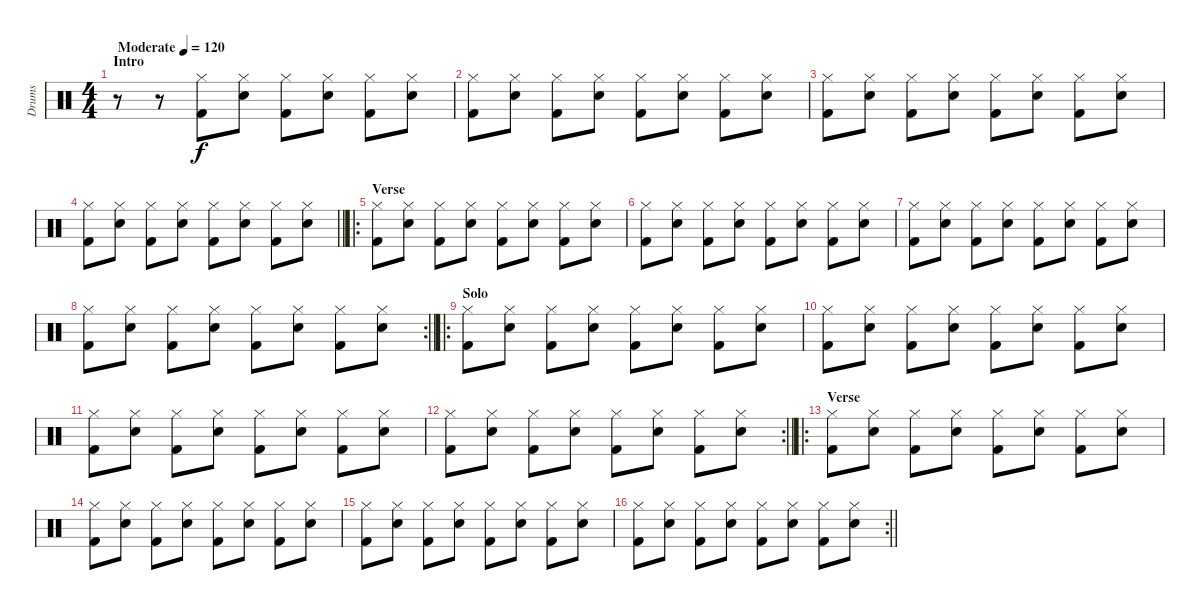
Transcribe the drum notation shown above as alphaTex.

\track ("Drums" "Drums") {instrument percussion}
\staff {score}
\articulation defaults
\ts (4 4)
\section ("" "Intro")
\tempo (120 "Moderate")
\clef neutral
\ks c
r.8{dy f} r.8 ("Hi-Hat (closed)" "Kick (hit) 2").8 ("Hi-Hat (closed)" "Snare (hit) 2").8 ("Hi-Hat (closed)" "Kick (hit) 2").8 ("Hi-Hat (closed)" "Snare (hit) 2").8 ("Hi-Hat (closed)" "Kick (hit) 2").8 ("Hi-Hat (closed)" "Snare (hit) 2").8 |
("Hi-Hat (closed)" "Kick (hit) 2").8 ("Hi-Hat (closed)" "Snare (hit) 2").8 ("Hi-Hat (closed)" "Kick (hit) 2").8 ("Hi-Hat (closed)" "Snare (hit) 2").8 ("Hi-Hat (closed)" "Kick (hit) 2").8 ("Hi-Hat (closed)" "Snare (hit) 2").8 ("Hi-Hat (closed)" "Kick (hit) 2").8 ("Hi-Hat (closed)" "Snare (hit) 2").8 |
("Hi-Hat (closed)" "Kick (hit) 2").8 ("Hi-Hat (closed)" "Snare (hit) 2").8 ("Hi-Hat (closed)" "Kick (hit) 2").8 ("Hi-Hat (closed)" "Snare (hit) 2").8 ("Hi-Hat (closed)" "Kick (hit) 2").8 ("Hi-Hat (closed)" "Snare (hit) 2").8 ("Hi-Hat (closed)" "Kick (hit) 2").8 ("Hi-Hat (closed)" "Snare (hit) 2").8 |
\barLineRight lightlight
("Hi-Hat (closed)" "Kick (hit) 2").8 ("Hi-Hat (closed)" "Snare (hit) 2").8 ("Hi-Hat (closed)" "Kick (hit) 2").8 ("Hi-Hat (closed)" "Snare (hit) 2").8 ("Hi-Hat (closed)" "Kick (hit) 2").8 ("Hi-Hat (closed)" "Snare (hit) 2").8 ("Hi-Hat (closed)" "Kick (hit) 2").8 ("Hi-Hat (closed)" "Snare (hit) 2").8 |
\ro
\section ("" "Verse")
("Hi-Hat (closed)" "Kick (hit) 2").8 ("Hi-Hat (closed)" "Snare (hit) 2").8 ("Hi-Hat (closed)" "Kick (hit) 2").8 ("Hi-Hat (closed)" "Snare (hit) 2").8 ("Hi-Hat (closed)" "Kick (hit) 2").8 ("Hi-Hat (closed)" "Snare (hit) 2").8 ("Hi-Hat (closed)" "Kick (hit) 2").8 ("Hi-Hat (closed)" "Snare (hit) 2").8 |
("Hi-Hat (closed)" "Kick (hit) 2").8 ("Hi-Hat (closed)" "Snare (hit) 2").8 ("Hi-Hat (closed)" "Kick (hit) 2").8 ("Hi-Hat (closed)" "Snare (hit) 2").8 ("Hi-Hat (closed)" "Kick (hit) 2").8 ("Hi-Hat (closed)" "Snare (hit) 2").8 ("Hi-Hat (closed)" "Kick (hit) 2").8 ("Hi-Hat (closed)" "Snare (hit) 2").8 |
("Hi-Hat (closed)" "Kick (hit) 2").8 ("Hi-Hat (closed)" "Snare (hit) 2").8 ("Hi-Hat (closed)" "Kick (hit) 2").8 ("Hi-Hat (closed)" "Snare (hit) 2").8 ("Hi-Hat (closed)" "Kick (hit) 2").8 ("Hi-Hat (closed)" "Snare (hit) 2").8 ("Hi-Hat (closed)" "Kick (hit) 2").8 ("Hi-Hat (closed)" "Snare (hit) 2").8 |
\rc 2
\barLineRight lightlight
("Hi-Hat (closed)" "Kick (hit) 2").8 ("Hi-Hat (closed)" "Snare (hit) 2").8 ("Hi-Hat (closed)" "Kick (hit) 2").8 ("Hi-Hat (closed)" "Snare (hit) 2").8 ("Hi-Hat (closed)" "Kick (hit) 2").8 ("Hi-Hat (closed)" "Snare (hit) 2").8 ("Hi-Hat (closed)" "Kick (hit) 2").8 ("Hi-Hat (closed)" "Snare (hit) 2").8 |
\ro
\section ("" "Solo")
("Hi-Hat (closed)" "Kick (hit) 2").8 ("Hi-Hat (closed)" "Snare (hit) 2").8 ("Hi-Hat (closed)" "Kick (hit) 2").8 ("Hi-Hat (closed)" "Snare (hit) 2").8 ("Hi-Hat (closed)" "Kick (hit) 2").8 ("Hi-Hat (closed)" "Snare (hit) 2").8 ("Hi-Hat (closed)" "Kick (hit) 2").8 ("Hi-Hat (closed)" "Snare (hit) 2").8 |
("Hi-Hat (closed)" "Kick (hit) 2").8 ("Hi-Hat (closed)" "Snare (hit) 2").8 ("Hi-Hat (closed)" "Kick (hit) 2").8 ("Hi-Hat (closed)" "Snare (hit) 2").8 ("Hi-Hat (closed)" "Kick (hit) 2").8 ("Hi-Hat (closed)" "Snare (hit) 2").8 ("Hi-Hat (closed)" "Kick (hit) 2").8 ("Hi-Hat (closed)" "Snare (hit) 2").8 |
("Hi-Hat (closed)" "Kick (hit) 2").8 ("Hi-Hat (closed)" "Snare (hit) 2").8 ("Hi-Hat (closed)" "Kick (hit) 2").8 ("Hi-Hat (closed)" "Snare (hit) 2").8 ("Hi-Hat (closed)" "Kick (hit) 2").8 ("Hi-Hat (closed)" "Snare (hit) 2").8 ("Hi-Hat (closed)" "Kick (hit) 2").8 ("Hi-Hat (closed)" "Snare (hit) 2").8 |
\rc 2
\barLineRight lightlight
("Hi-Hat (closed)" "Kick (hit) 2").8 ("Hi-Hat (closed)" "Snare (hit) 2").8 ("Hi-Hat (closed)" "Kick (hit) 2").8 ("Hi-Hat (closed)" "Snare (hit) 2").8 ("Hi-Hat (closed)" "Kick (hit) 2").8 ("Hi-Hat (closed)" "Snare (hit) 2").8 ("Hi-Hat (closed)" "Kick (hit) 2").8 ("Hi-Hat (closed)" "Snare (hit) 2").8 |
\ro
\section ("" "Verse")
("Hi-Hat (closed)" "Kick (hit) 2").8 ("Hi-Hat (closed)" "Snare (hit) 2").8 ("Hi-Hat (closed)" "Kick (hit) 2").8 ("Hi-Hat (closed)" "Snare (hit) 2").8 ("Hi-Hat (closed)" "Kick (hit) 2").8 ("Hi-Hat (closed)" "Snare (hit) 2").8 ("Hi-Hat (closed)" "Kick (hit) 2").8 ("Hi-Hat (closed)" "Snare (hit) 2").8 |
("Hi-Hat (closed)" "Kick (hit) 2").8 ("Hi-Hat (closed)" "Snare (hit) 2").8 ("Hi-Hat (closed)" "Kick (hit) 2").8 ("Hi-Hat (closed)" "Snare (hit) 2").8 ("Hi-Hat (closed)" "Kick (hit) 2").8 ("Hi-Hat (closed)" "Snare (hit) 2").8 ("Hi-Hat (closed)" "Kick (hit) 2").8 ("Hi-Hat (closed)" "Snare (hit) 2").8 |
("Hi-Hat (closed)" "Kick (hit) 2").8 ("Hi-Hat (closed)" "Snare (hit) 2").8 ("Hi-Hat (closed)" "Kick (hit) 2").8 ("Hi-Hat (closed)" "Snare (hit) 2").8 ("Hi-Hat (closed)" "Kick (hit) 2").8 ("Hi-Hat (closed)" "Snare (hit) 2").8 ("Hi-Hat (closed)" "Kick (hit) 2").8 ("Hi-Hat (closed)" "Snare (hit) 2").8 |
\rc 2
\barLineRight lightlight
("Hi-Hat (closed)" "Kick (hit) 2").8 ("Hi-Hat (closed)" "Snare (hit) 2").8 ("Hi-Hat (closed)" "Kick (hit) 2").8 ("Hi-Hat (closed)" "Snare (hit) 2").8 ("Hi-Hat (closed)" "Kick (hit) 2").8 ("Hi-Hat (closed)" "Snare (hit) 2").8 ("Hi-Hat (closed)" "Kick (hit) 2").8 ("Hi-Hat (closed)" "Snare (hit) 2").8
